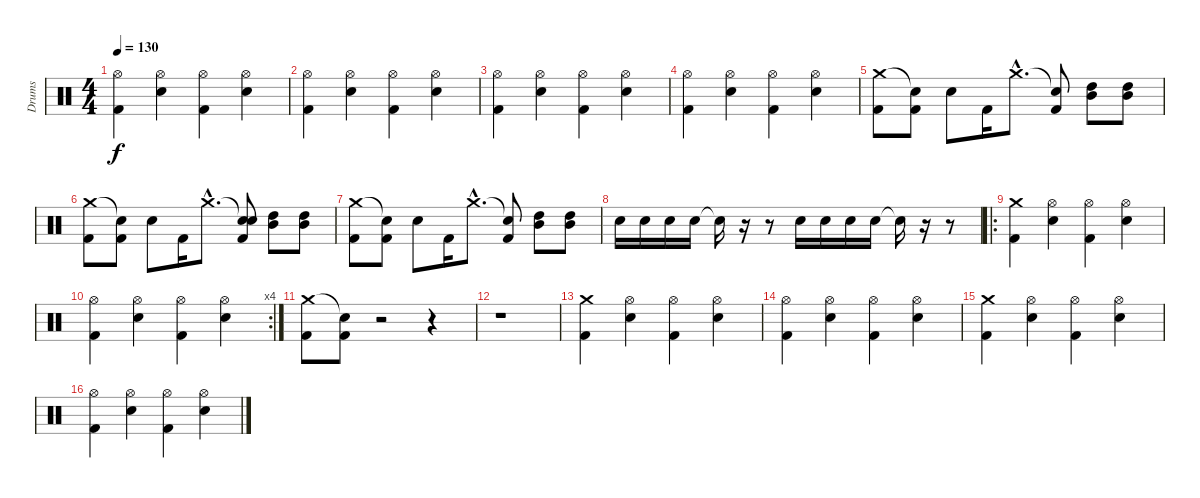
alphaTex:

\track ("Drums" "Drums") {instrument percussion}
\staff {score}
\articulation defaults
\ts (4 4)
\tempo 130
\clef neutral
\ks c
("Hi-Hat (open)" "Kick (hit) 2").4{dy f} ("Hi-Hat (open)" "Electric Snare (hit)").4 ("Hi-Hat (open)" "Kick (hit) 2").4 ("Hi-Hat (open)" "Electric Snare (hit)").4 |
("Hi-Hat (open)" "Kick (hit) 2").4 ("Hi-Hat (open)" "Electric Snare (hit)").4 ("Hi-Hat (open)" "Kick (hit) 2").4 ("Hi-Hat (open)" "Electric Snare (hit)").4 |
("Hi-Hat (open)" "Kick (hit) 2").4 ("Hi-Hat (open)" "Electric Snare (hit)").4 ("Hi-Hat (open)" "Kick (hit) 2").4 ("Hi-Hat (open)" "Electric Snare (hit)").4 |
("Hi-Hat (open)" "Kick (hit) 2").4 ("Hi-Hat (open)" "Electric Snare (hit)").4 ("Hi-Hat (open)" "Kick (hit) 2").4 ("Hi-Hat (open)" "Electric Snare (hit)").4 |
("Crash medium (hit)" "Kick (hit) 2").8 ("Snare (hit)"{t} "Kick (hit) 2").8 "Electric Snare (hit)".8 "Kick (hit) 2".16 "Crash medium (hit)"{hac}.8{d} ("Snare (hit)"{t} "Kick (hit) 2").8 ("High Tom (hit)" "Mid Tom (hit)").8 ("High Tom (hit)" "Mid Tom (hit)").8 |
("Crash medium (hit)" "Kick (hit) 2").8 ("Snare (hit)"{t} "Kick (hit) 2").8 "Electric Snare (hit)".8 "Kick (hit) 2".16 "Crash medium (hit)"{hac}.8{d} ("Snare (hit)"{t} "Electric Snare (hit)" "Kick (hit) 2").8 ("Mid Tom (hit)" "High Tom (hit)").8 ("Mid Tom (hit)" "High Tom (hit)").8 |
("Crash medium (hit)" "Kick (hit) 2").8 ("Snare (hit)"{t} "Kick (hit) 2").8 "Electric Snare (hit)".8 "Kick (hit) 2".16 "Crash medium (hit)"{hac}.8{d} ("Snare (hit)"{t} "Kick (hit) 2").8 ("High Tom (hit)" "Mid Tom (hit)").8 ("High Tom (hit)" "Mid Tom (hit)").8 |
"Electric Snare (hit)".16 "Electric Snare (hit)".16 "Electric Snare (hit)".16 "Electric Snare (hit)".16 "Snare (hit)"{t}.16 r.16 r.8 "Electric Snare (hit)".16 "Electric Snare (hit)".16 "Electric Snare (hit)".16 "Electric Snare (hit)".16 "Snare (hit)"{t}.16 r.16 r.8 |
\ro
("Crash medium (hit)" "Kick (hit) 2").4 ("Hi-Hat (open)" "Electric Snare (hit)").4 ("Hi-Hat (open)" "Kick (hit) 2").4 ("Hi-Hat (open)" "Electric Snare (hit)").4 |
\rc 4
("Hi-Hat (open)" "Kick (hit) 2").4 ("Hi-Hat (open)" "Electric Snare (hit)").4 ("Hi-Hat (open)" "Kick (hit) 2").4 ("Hi-Hat (open)" "Electric Snare (hit)").4 |
("Crash medium (hit)" "Kick (hit) 2").8 ("Snare (hit)"{t} "Kick (hit) 2").8 r.2 r.4 |
r.1 |
("Crash medium (hit)" "Kick (hit) 2").4 ("Hi-Hat (open)" "Electric Snare (hit)").4 ("Hi-Hat (open)" "Kick (hit) 2").4 ("Hi-Hat (open)" "Electric Snare (hit)").4 |
("Hi-Hat (open)" "Kick (hit) 2").4 ("Hi-Hat (open)" "Electric Snare (hit)").4 ("Hi-Hat (open)" "Kick (hit) 2").4 ("Hi-Hat (open)" "Electric Snare (hit)").4 |
("Crash medium (hit)" "Kick (hit) 2").4 ("Hi-Hat (open)" "Electric Snare (hit)").4 ("Hi-Hat (open)" "Kick (hit) 2").4 ("Hi-Hat (open)" "Electric Snare (hit)").4 |
("Hi-Hat (open)" "Kick (hit) 2").4 ("Hi-Hat (open)" "Electric Snare (hit)").4 ("Hi-Hat (open)" "Kick (hit) 2").4 ("Hi-Hat (open)" "Electric Snare (hit)").4
